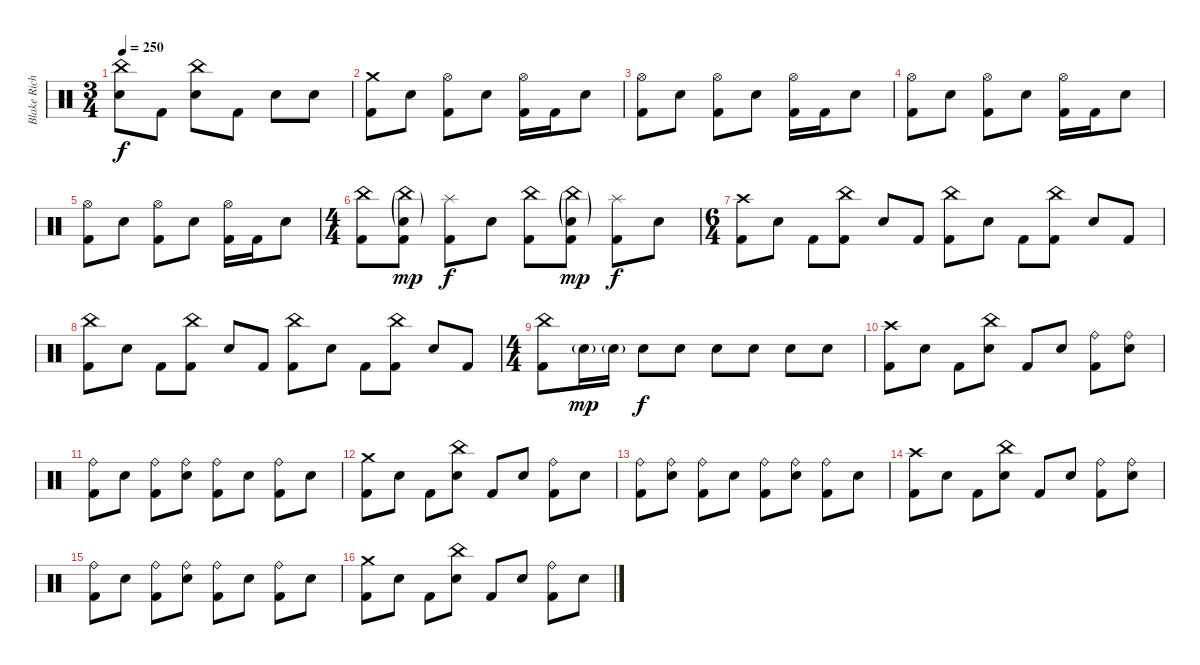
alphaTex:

\track ("Blake Richardson - Drums" "Blake Rich") {instrument percussion}
\staff {score}
\articulation defaults
\ts (3 4)
\tempo 250
\clef neutral
\ks c
("China (hit)" "Electric Snare (hit)").8{dy f} "Kick (hit) 2".8 ("China (hit)" "Electric Snare (hit)").8 "Kick (hit) 2".8 "Electric Snare (hit)".8 "Electric Snare (hit)".8 |
("Crash medium (hit)" "Kick (hit) 2").8 "Electric Snare (hit)".8 ("Hi-Hat (open)" "Kick (hit) 2").8 "Electric Snare (hit)".8 ("Hi-Hat (open)" "Kick (hit) 2").16 "Kick (hit) 2".16 "Electric Snare (hit)".8 |
("Hi-Hat (open)" "Kick (hit) 2").8 "Electric Snare (hit)".8 ("Hi-Hat (open)" "Kick (hit) 2").8 "Electric Snare (hit)".8 ("Hi-Hat (open)" "Kick (hit) 2").16 "Kick (hit) 2".16 "Electric Snare (hit)".8 |
("Hi-Hat (open)" "Kick (hit) 2").8 "Electric Snare (hit)".8 ("Hi-Hat (open)" "Kick (hit) 2").8 "Electric Snare (hit)".8 ("Hi-Hat (open)" "Kick (hit) 2").16 "Kick (hit) 2".16 "Electric Snare (hit)".8 |
("Hi-Hat (open)" "Kick (hit) 2").8 "Electric Snare (hit)".8 ("Hi-Hat (open)" "Kick (hit) 2").8 "Electric Snare (hit)".8 ("Hi-Hat (open)" "Kick (hit) 2").16 "Kick (hit) 2".16 "Electric Snare (hit)".8 |
\ts (4 4)
("China (hit)" "Kick (hit) 2").8 ("China (hit)"{g} "Electric Snare (hit)"{g} "Kick (hit) 2").8{dy mp} ("Splash (hit)" "Kick (hit) 2").8{dy f} "Electric Snare (hit)".8 ("China (hit)" "Kick (hit) 2").8 ("China (hit)"{g} "Electric Snare (hit)"{g} "Kick (hit) 2").8{dy mp} ("Splash (hit)" "Kick (hit) 2").8{dy f} "Electric Snare (hit)".8 |
\ts (6 4)
("Crash high (hit)" "Kick (hit) 2").8 "Electric Snare (hit)".8 "Kick (hit) 2".8 ("China (hit)" "Kick (hit) 2").8 "Electric Snare (hit)".8 "Kick (hit) 2".8 ("China (hit)" "Kick (hit) 2").8 "Electric Snare (hit)".8 "Kick (hit) 2".8 ("China (hit)" "Kick (hit) 2").8 "Electric Snare (hit)".8 "Kick (hit) 2".8 |
("China (hit)" "Kick (hit) 2").8 "Electric Snare (hit)".8 "Kick (hit) 2".8 ("China (hit)" "Kick (hit) 2").8 "Electric Snare (hit)".8 "Kick (hit) 2".8 ("China (hit)" "Kick (hit) 2").8 "Electric Snare (hit)".8 "Kick (hit) 2".8 ("China (hit)" "Kick (hit) 2").8 "Electric Snare (hit)".8 "Kick (hit) 2".8 |
\ts (4 4)
("China (hit)" "Kick (hit) 2").8 "Electric Snare (hit)"{g}.16{dy mp} "Electric Snare (hit)"{g}.16 "Electric Snare (hit)".8{dy f} "Electric Snare (hit)".8 "Electric Snare (hit)".8 "Electric Snare (hit)".8 "Electric Snare (hit)".8 "Electric Snare (hit)".8 |
("Crash high (hit)" "Kick (hit) 2").8 "Electric Snare (hit)".8 "Kick (hit) 2".8 ("China (hit)" "Electric Snare (hit)").8 "Kick (hit) 2".8 "Electric Snare (hit)".8 ("Ride (bell)" "Kick (hit) 2").8 ("Ride (bell)" "Electric Snare (hit)").8 |
("Ride (bell)" "Kick (hit) 2").8 "Electric Snare (hit)".8 ("Ride (bell)" "Kick (hit) 2").8 ("Ride (bell)" "Electric Snare (hit)").8 ("Ride (bell)" "Kick (hit) 2").8 "Electric Snare (hit)".8 ("Ride (bell)" "Kick (hit) 2").8 "Electric Snare (hit)".8 |
("Crash medium (hit)" "Kick (hit) 2").8 "Electric Snare (hit)".8 "Kick (hit) 2".8 ("China (hit)" "Electric Snare (hit)").8 "Kick (hit) 2".8 "Electric Snare (hit)".8 ("Ride (bell)" "Kick (hit) 2").8 "Electric Snare (hit)".8 |
("Ride (bell)" "Kick (hit) 2").8 ("Ride (bell)" "Electric Snare (hit)").8 ("Ride (bell)" "Kick (hit) 2").8 "Electric Snare (hit)".8 ("Ride (bell)" "Kick (hit) 2").8 ("Ride (bell)" "Electric Snare (hit)").8 ("Ride (bell)" "Kick (hit) 2").8 "Electric Snare (hit)".8 |
("Crash high (hit)" "Kick (hit) 2").8 "Electric Snare (hit)".8 "Kick (hit) 2".8 ("China (hit)" "Electric Snare (hit)").8 "Kick (hit) 2".8 "Electric Snare (hit)".8 ("Ride (bell)" "Kick (hit) 2").8 ("Ride (bell)" "Electric Snare (hit)").8 |
("Ride (bell)" "Kick (hit) 2").8 "Electric Snare (hit)".8 ("Ride (bell)" "Kick (hit) 2").8 ("Ride (bell)" "Electric Snare (hit)").8 ("Ride (bell)" "Kick (hit) 2").8 "Electric Snare (hit)".8 ("Ride (bell)" "Kick (hit) 2").8 "Electric Snare (hit)".8 |
("Crash medium (hit)" "Kick (hit) 2").8 "Electric Snare (hit)".8 "Kick (hit) 2".8 ("China (hit)" "Electric Snare (hit)").8 "Kick (hit) 2".8 "Electric Snare (hit)".8 ("Ride (bell)" "Kick (hit) 2").8 "Electric Snare (hit)".8
